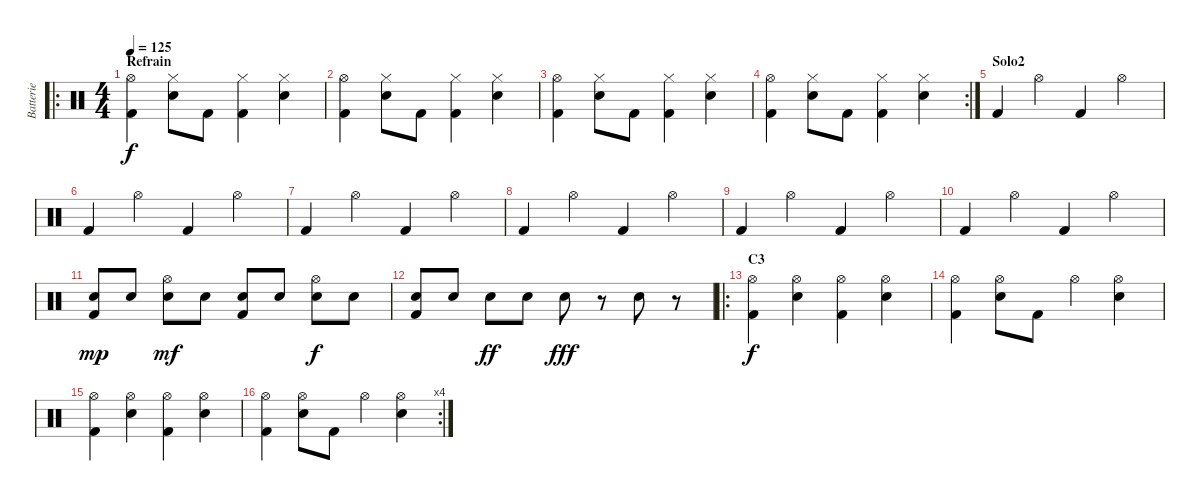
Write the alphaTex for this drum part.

\track ("Batterie" "Batterie") {instrument percussion}
\staff {score}
\articulation defaults
\ro
\ts (4 4)
\section ("" "Refrain")
\tempo 125
\clef neutral
\ks c
("Hi-Hat (open)" "Kick (hit) 2").4{dy f} ("Hi-Hat (closed)" "Snare (hit) 2").8 "Kick (hit) 2".8 ("Hi-Hat (closed)" "Kick (hit) 2").4 ("Hi-Hat (closed)" "Snare (hit) 2").4 |
("Hi-Hat (open)" "Kick (hit) 2").4 ("Hi-Hat (closed)" "Snare (hit) 2").8 "Kick (hit) 2".8 ("Hi-Hat (closed)" "Kick (hit) 2").4 ("Hi-Hat (closed)" "Snare (hit) 2").4 |
("Hi-Hat (open)" "Kick (hit) 2").4 ("Hi-Hat (closed)" "Snare (hit) 2").8 "Kick (hit) 2".8 ("Hi-Hat (closed)" "Kick (hit) 2").4 ("Hi-Hat (closed)" "Snare (hit) 2").4 |
\rc 2
("Hi-Hat (open)" "Kick (hit) 2").4 ("Hi-Hat (closed)" "Snare (hit) 2").8 "Kick (hit) 2".8 ("Hi-Hat (closed)" "Kick (hit) 2").4 ("Hi-Hat (closed)" "Snare (hit) 2").4 |
\section ("" "Solo2")
"Kick (hit) 2".4 "Hi-Hat (open)".4 "Kick (hit) 2".4 "Hi-Hat (open)".4 |
"Kick (hit) 2".4 "Hi-Hat (open)".4 "Kick (hit) 2".4 "Hi-Hat (open)".4 |
"Kick (hit) 2".4 "Hi-Hat (open)".4 "Kick (hit) 2".4 "Hi-Hat (open)".4 |
"Kick (hit) 2".4 "Hi-Hat (open)".4 "Kick (hit) 2".4 "Hi-Hat (open)".4 |
"Kick (hit) 2".4 "Hi-Hat (open)".4 "Kick (hit) 2".4 "Hi-Hat (open)".4 |
"Kick (hit) 2".4 "Hi-Hat (open)".4 "Kick (hit) 2".4 "Hi-Hat (open)".4 |
("Snare (hit) 2" "Kick (hit) 2").8{dy mp} "Snare (hit) 2".8 ("Hi-Hat (open)" "Snare (hit) 2").8{dy mf} "Snare (hit) 2".8 ("Snare (hit) 2" "Kick (hit) 2").8 "Snare (hit) 2".8 ("Hi-Hat (open)" "Snare (hit) 2").8{dy f} "Snare (hit) 2".8 |
("Snare (hit) 2" "Kick (hit) 2").8 "Snare (hit) 2".8 "Snare (hit) 2".8{dy ff} "Snare (hit) 2".8 "Snare (hit) 2".8{dy fff} r.8 "Snare (hit) 2".8 r.8 |
\ro
\section ("" "C3")
("Hi-Hat (open)" "Kick (hit) 2").4{dy f} ("Hi-Hat (open)" "Snare (hit) 2").4 ("Hi-Hat (open)" "Kick (hit) 2").4 ("Hi-Hat (open)" "Snare (hit) 2").4 |
("Hi-Hat (open)" "Kick (hit) 2").4 ("Hi-Hat (open)" "Snare (hit) 2").8 "Kick (hit) 2".8 "Hi-Hat (open)".4 ("Hi-Hat (open)" "Snare (hit) 2").4 |
("Hi-Hat (open)" "Kick (hit) 2").4 ("Hi-Hat (open)" "Snare (hit) 2").4 ("Hi-Hat (open)" "Kick (hit) 2").4 ("Hi-Hat (open)" "Snare (hit) 2").4 |
\rc 4
("Hi-Hat (open)" "Kick (hit) 2").4 ("Hi-Hat (open)" "Snare (hit) 2").8 "Kick (hit) 2".8 "Hi-Hat (open)".4 ("Hi-Hat (open)" "Snare (hit) 2").4
